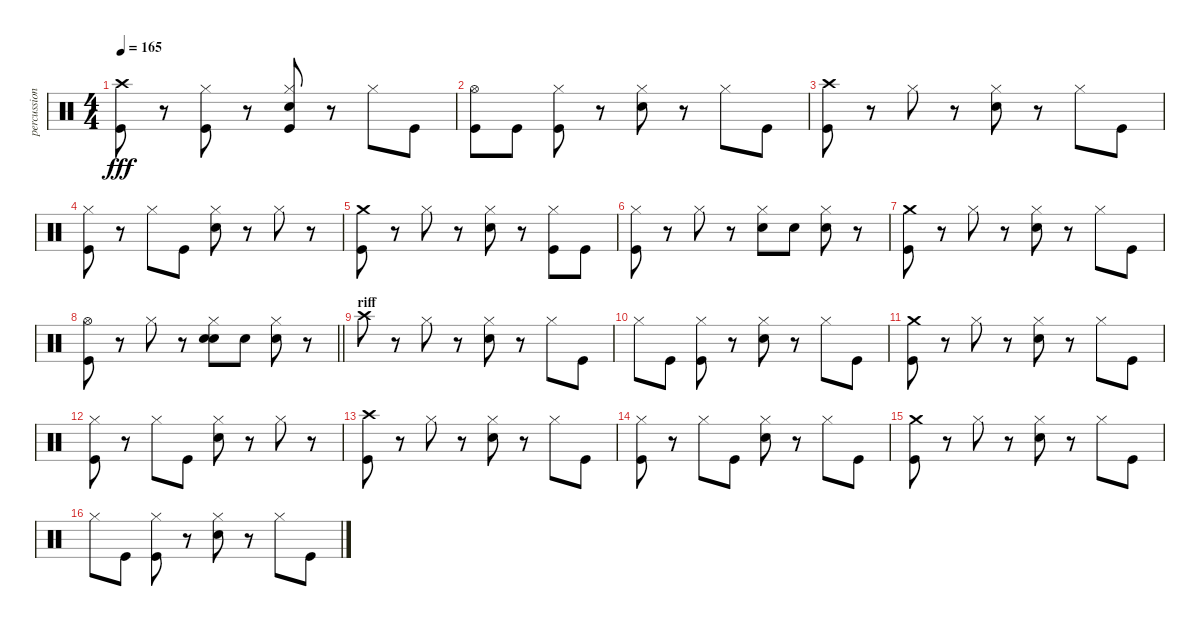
\track ("percussion (Paice)" "percussion") {instrument percussion}
\staff {score}
\articulation defaults
\ts (4 4)
\tempo 165
\clef neutral
\ks c
("Crash high (hit)" "Kick (hit)").8{dy fff} r.8 ("Kick (hit)" "Hi-Hat (closed)").8 r.8 ("Kick (hit)" "Snare (hit) 2" "Hi-Hat (closed)").8 r.8 "Hi-Hat (closed)".8 "Kick (hit)".8 |
("Kick (hit)" "Hi-Hat (open)").8 "Kick (hit)".8 ("Kick (hit)" "Hi-Hat (closed)").8 r.8 ("Snare (hit) 2" "Hi-Hat (closed)").8 r.8 "Hi-Hat (closed)".8 "Kick (hit)".8 |
("Crash high (hit)" "Kick (hit)").8 r.8 "Hi-Hat (closed)".8 r.8 ("Snare (hit) 2" "Hi-Hat (closed)").8 r.8 "Hi-Hat (closed)".8 "Kick (hit)".8 |
("Kick (hit)" "Hi-Hat (closed)").8 r.8 "Hi-Hat (closed)".8 "Kick (hit)".8 ("Snare (hit) 2" "Hi-Hat (closed)").8 r.8 "Hi-Hat (closed)".8 r.8 |
("Crash medium (hit)" "Kick (hit)").8 r.8 "Hi-Hat (closed)".8 r.8 ("Snare (hit) 2" "Hi-Hat (closed)").8 r.8 ("Hi-Hat (closed)" "Kick (hit)").8 "Kick (hit)".8 |
("Kick (hit)" "Hi-Hat (closed)").8 r.8 "Hi-Hat (closed)".8 r.8 ("Snare (hit) 2" "Hi-Hat (closed)").8 "Snare (hit) 2".8 ("Snare (hit) 2" "Hi-Hat (closed)").8 r.8 |
("Crash medium (hit)" "Kick (hit)").8 r.8 "Hi-Hat (closed)".8 r.8 ("Snare (hit) 2" "Hi-Hat (closed)").8 r.8 "Hi-Hat (closed)".8 "Kick (hit)".8 |
\barLineRight lightlight
("Hi-Hat (open)" "Kick (hit)").8 r.8 "Hi-Hat (closed)".8 r.8 ("Snare (hit) 2" "Hi-Hat (closed)" "Snare (hit) 2").8 "Snare (hit) 2".8 ("Snare (hit) 2" "Hi-Hat (closed)").8 r.8 |
\section ("" "riff")
"Crash high (hit)".8{volume 15} r.8 "Hi-Hat (closed)".8 r.8 ("Snare (hit) 2" "Hi-Hat (closed)").8 r.8 "Hi-Hat (closed)".8 "Kick (hit)".8 |
"Hi-Hat (closed)".8 "Kick (hit)".8 ("Kick (hit)" "Hi-Hat (closed)").8 r.8 ("Snare (hit) 2" "Hi-Hat (closed)").8 r.8 "Hi-Hat (closed)".8 "Kick (hit)".8 |
("Crash medium (hit)" "Kick (hit)").8 r.8 "Hi-Hat (closed)".8 r.8 ("Snare (hit) 2" "Hi-Hat (closed)").8 r.8 "Hi-Hat (closed)".8 "Kick (hit)".8 |
("Kick (hit)" "Hi-Hat (closed)").8 r.8 "Hi-Hat (closed)".8 "Kick (hit)".8 ("Snare (hit) 2" "Hi-Hat (closed)").8 r.8 "Hi-Hat (closed)".8 r.8 |
("Crash high (hit)" "Kick (hit)").8 r.8 "Hi-Hat (closed)".8 r.8 ("Snare (hit) 2" "Hi-Hat (closed)").8 r.8 "Hi-Hat (closed)".8 "Kick (hit)".8 |
("Kick (hit)" "Hi-Hat (closed)").8 r.8 "Hi-Hat (closed)".8 "Kick (hit)".8 ("Snare (hit) 2" "Hi-Hat (closed)").8 r.8 "Hi-Hat (closed)".8 "Kick (hit)".8 |
("Crash medium (hit)" "Kick (hit)").8 r.8 "Hi-Hat (closed)".8 r.8 ("Snare (hit) 2" "Hi-Hat (closed)").8 r.8 "Hi-Hat (closed)".8 "Kick (hit)".8 |
"Hi-Hat (closed)".8 "Kick (hit)".8 ("Kick (hit)" "Hi-Hat (closed)").8 r.8 ("Snare (hit) 2" "Hi-Hat (closed)").8 r.8 "Hi-Hat (closed)".8 "Kick (hit)".8
